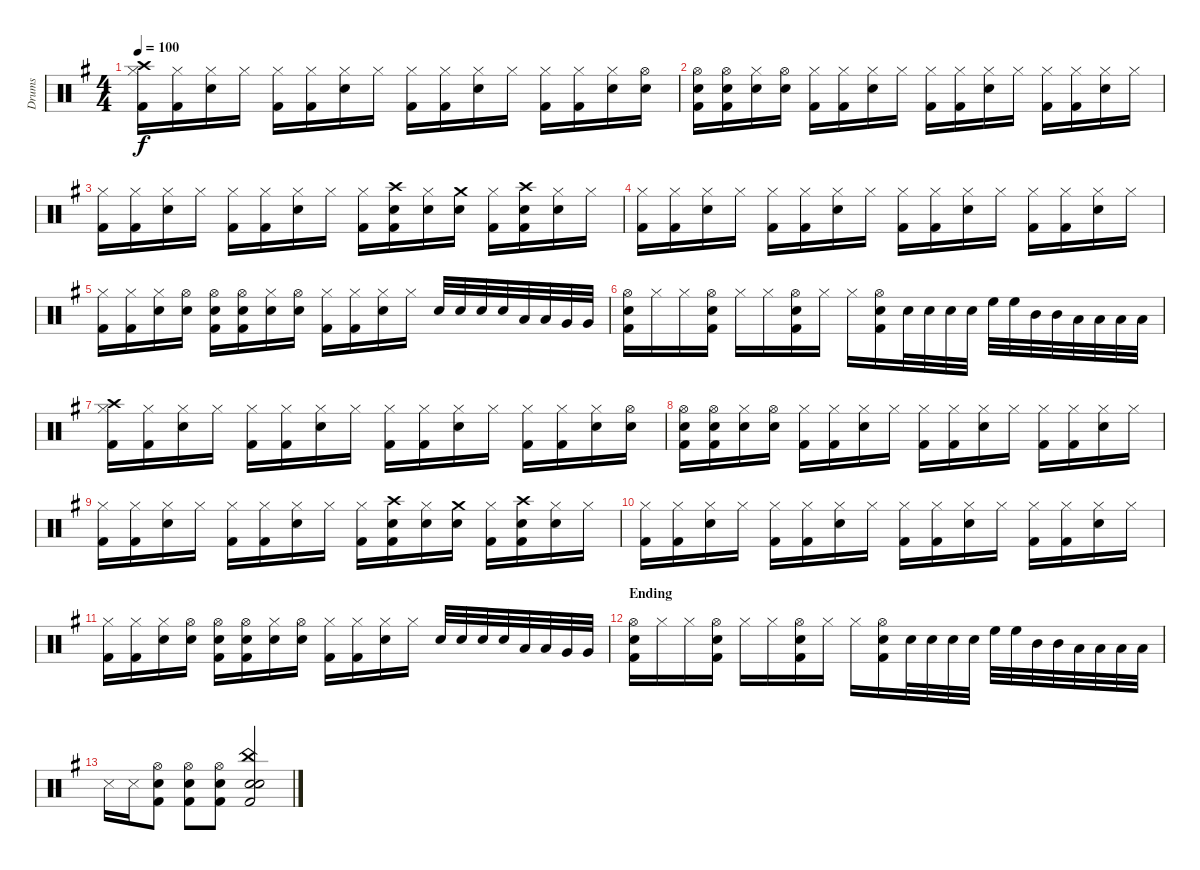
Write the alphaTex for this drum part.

\track ("Drums" "Drums") {instrument percussion}
\staff {score}
\articulation defaults
\ts (4 4)
\tempo 100
\clef neutral
\ks eminor
("Hi-Hat (closed)" "Crash high (hit)" "Kick (hit) 2").16{dy f} ("Hi-Hat (closed)" "Kick (hit) 2").16 ("Hi-Hat (closed)" "Snare (hit) 2").16 "Hi-Hat (closed)".16 ("Hi-Hat (closed)" "Kick (hit) 2").16 ("Hi-Hat (closed)" "Kick (hit) 2").16 ("Hi-Hat (closed)" "Snare (hit) 2").16 "Hi-Hat (closed)".16 ("Hi-Hat (closed)" "Kick (hit) 2").16 ("Hi-Hat (closed)" "Kick (hit) 2").16 ("Hi-Hat (closed)" "Snare (hit) 2").16 "Hi-Hat (closed)".16 ("Hi-Hat (closed)" "Kick (hit) 2").16 ("Hi-Hat (closed)" "Kick (hit) 2").16 ("Hi-Hat (closed)" "Snare (hit) 2").16 ("Hi-Hat (open)" "Snare (hit) 2").16 |
("Hi-Hat (open)" "Snare (hit) 2" "Kick (hit) 2").16 ("Hi-Hat (open)" "Snare (hit) 2" "Kick (hit) 2").16 ("Hi-Hat (closed)" "Snare (hit) 2").16 ("Hi-Hat (open)" "Snare (hit) 2").16 ("Hi-Hat (closed)" "Kick (hit) 2").16 ("Hi-Hat (closed)" "Kick (hit) 2").16 ("Hi-Hat (closed)" "Snare (hit) 2").16 "Hi-Hat (closed)".16 ("Hi-Hat (closed)" "Kick (hit) 2").16 ("Hi-Hat (closed)" "Kick (hit) 2").16 ("Hi-Hat (closed)" "Snare (hit) 2").16 "Hi-Hat (closed)".16 ("Hi-Hat (closed)" "Kick (hit) 2").16 ("Hi-Hat (closed)" "Kick (hit) 2").16 ("Hi-Hat (closed)" "Snare (hit) 2").16 "Hi-Hat (closed)".16 |
("Hi-Hat (closed)" "Kick (hit) 2").16 ("Hi-Hat (closed)" "Kick (hit) 2").16 ("Hi-Hat (closed)" "Snare (hit) 2").16 "Hi-Hat (closed)".16 ("Hi-Hat (closed)" "Kick (hit) 2").16 ("Hi-Hat (closed)" "Kick (hit) 2").16 ("Hi-Hat (closed)" "Snare (hit) 2").16 "Hi-Hat (closed)".16 ("Hi-Hat (closed)" "Kick (hit) 2").16 ("Crash high (hit)" "Snare (hit) 2" "Kick (hit) 2").16 ("Hi-Hat (closed)" "Snare (hit) 2").16 ("Crash medium (hit)" "Snare (hit) 2").16 ("Hi-Hat (closed)" "Kick (hit) 2").16 ("Crash high (hit)" "Snare (hit) 2" "Kick (hit) 2").16 ("Hi-Hat (closed)" "Snare (hit) 2").16 "Hi-Hat (closed)".16 |
("Hi-Hat (closed)" "Kick (hit) 2").16 ("Hi-Hat (closed)" "Kick (hit) 2").16 ("Hi-Hat (closed)" "Snare (hit) 2").16 "Hi-Hat (closed)".16 ("Hi-Hat (closed)" "Kick (hit) 2").16 ("Hi-Hat (closed)" "Kick (hit) 2").16 ("Hi-Hat (closed)" "Snare (hit) 2").16 "Hi-Hat (closed)".16 ("Hi-Hat (closed)" "Kick (hit) 2").16 ("Hi-Hat (closed)" "Kick (hit) 2").16 ("Hi-Hat (closed)" "Snare (hit) 2").16 "Hi-Hat (closed)".16 ("Hi-Hat (closed)" "Kick (hit) 2").16 ("Hi-Hat (closed)" "Kick (hit) 2").16 ("Hi-Hat (closed)" "Snare (hit) 2").16 "Hi-Hat (closed)".16 |
("Hi-Hat (closed)" "Kick (hit) 2").16 ("Hi-Hat (closed)" "Kick (hit) 2").16 ("Hi-Hat (closed)" "Snare (hit) 2").16 ("Hi-Hat (open)" "Snare (hit) 2").16 ("Hi-Hat (open)" "Snare (hit) 2" "Kick (hit) 2").16 ("Hi-Hat (open)" "Snare (hit) 2" "Kick (hit) 2").16 ("Hi-Hat (closed)" "Snare (hit) 2").16 ("Hi-Hat (open)" "Snare (hit) 2").16 ("Hi-Hat (closed)" "Kick (hit) 2").16 ("Hi-Hat (closed)" "Kick (hit) 2").16 ("Hi-Hat (closed)" "Snare (hit) 2").16 "Hi-Hat (closed)".16 "Snare (hit) 2".32 "Snare (hit) 2".32 "Snare (hit) 2".32 "Snare (hit) 2".32 "Low Floor Tom (hit)".32 "Low Floor Tom (hit)".32 "Very Low Tom (hit)".32 "Very Low Tom (hit)".32 |
("Hi-Hat (open)" "Snare (hit) 2" "Kick (hit) 2").16 "Hi-Hat (closed)".16 "Hi-Hat (closed)".16 ("Hi-Hat (open)" "Snare (hit) 2" "Kick (hit) 2").16 "Hi-Hat (closed)".16 "Hi-Hat (closed)".16 ("Hi-Hat (open)" "Snare (hit) 2" "Kick (hit) 2").16 "Hi-Hat (closed)".16 "Hi-Hat (closed)".16 ("Hi-Hat (open)" "Snare (hit) 2" "Kick (hit) 2").16 "Snare (hit) 2".32 "Snare (hit) 2".32 "Snare (hit) 2".32 "Snare (hit) 2".32 "High Floor Tom (hit)".32 "High Floor Tom (hit)".32 "Mid Tom (hit)".32 "Mid Tom (hit)".32 "Low Tom (hit)".32 "Low Tom (hit)".32 "Low Floor Tom (hit)".32 "Low Floor Tom (hit)".32 |
("Hi-Hat (closed)" "Crash high (hit)" "Kick (hit) 2").16 ("Hi-Hat (closed)" "Kick (hit) 2").16 ("Hi-Hat (closed)" "Snare (hit) 2").16 "Hi-Hat (closed)".16 ("Hi-Hat (closed)" "Kick (hit) 2").16 ("Hi-Hat (closed)" "Kick (hit) 2").16 ("Hi-Hat (closed)" "Snare (hit) 2").16 "Hi-Hat (closed)".16 ("Hi-Hat (closed)" "Kick (hit) 2").16 ("Hi-Hat (closed)" "Kick (hit) 2").16 ("Hi-Hat (closed)" "Snare (hit) 2").16 "Hi-Hat (closed)".16 ("Hi-Hat (closed)" "Kick (hit) 2").16 ("Hi-Hat (closed)" "Kick (hit) 2").16 ("Hi-Hat (closed)" "Snare (hit) 2").16 ("Hi-Hat (open)" "Snare (hit) 2").16 |
("Hi-Hat (open)" "Snare (hit) 2" "Kick (hit) 2").16 ("Hi-Hat (open)" "Snare (hit) 2" "Kick (hit) 2").16 ("Hi-Hat (closed)" "Snare (hit) 2").16 ("Hi-Hat (open)" "Snare (hit) 2").16 ("Hi-Hat (closed)" "Kick (hit) 2").16 ("Hi-Hat (closed)" "Kick (hit) 2").16 ("Hi-Hat (closed)" "Snare (hit) 2").16 "Hi-Hat (closed)".16 ("Hi-Hat (closed)" "Kick (hit) 2").16 ("Hi-Hat (closed)" "Kick (hit) 2").16 ("Hi-Hat (closed)" "Snare (hit) 2").16 "Hi-Hat (closed)".16 ("Hi-Hat (closed)" "Kick (hit) 2").16 ("Hi-Hat (closed)" "Kick (hit) 2").16 ("Hi-Hat (closed)" "Snare (hit) 2").16 "Hi-Hat (closed)".16 |
("Hi-Hat (closed)" "Kick (hit) 2").16 ("Hi-Hat (closed)" "Kick (hit) 2").16 ("Hi-Hat (closed)" "Snare (hit) 2").16 "Hi-Hat (closed)".16 ("Hi-Hat (closed)" "Kick (hit) 2").16 ("Hi-Hat (closed)" "Kick (hit) 2").16 ("Hi-Hat (closed)" "Snare (hit) 2").16 "Hi-Hat (closed)".16 ("Hi-Hat (closed)" "Kick (hit) 2").16 ("Crash high (hit)" "Snare (hit) 2" "Kick (hit) 2").16 ("Hi-Hat (closed)" "Snare (hit) 2").16 ("Crash medium (hit)" "Snare (hit) 2").16 ("Hi-Hat (closed)" "Kick (hit) 2").16 ("Crash high (hit)" "Snare (hit) 2" "Kick (hit) 2").16 ("Hi-Hat (closed)" "Snare (hit) 2").16 "Hi-Hat (closed)".16 |
("Hi-Hat (closed)" "Kick (hit) 2").16 ("Hi-Hat (closed)" "Kick (hit) 2").16 ("Hi-Hat (closed)" "Snare (hit) 2").16 "Hi-Hat (closed)".16 ("Hi-Hat (closed)" "Kick (hit) 2").16 ("Hi-Hat (closed)" "Kick (hit) 2").16 ("Hi-Hat (closed)" "Snare (hit) 2").16 "Hi-Hat (closed)".16 ("Hi-Hat (closed)" "Kick (hit) 2").16 ("Hi-Hat (closed)" "Kick (hit) 2").16 ("Hi-Hat (closed)" "Snare (hit) 2").16 "Hi-Hat (closed)".16 ("Hi-Hat (closed)" "Kick (hit) 2").16 ("Hi-Hat (closed)" "Kick (hit) 2").16 ("Hi-Hat (closed)" "Snare (hit) 2").16 "Hi-Hat (closed)".16 |
("Hi-Hat (closed)" "Kick (hit) 2").16 ("Hi-Hat (closed)" "Kick (hit) 2").16 ("Hi-Hat (closed)" "Snare (hit) 2").16 ("Hi-Hat (open)" "Snare (hit) 2").16 ("Hi-Hat (open)" "Snare (hit) 2" "Kick (hit) 2").16 ("Hi-Hat (open)" "Snare (hit) 2" "Kick (hit) 2").16 ("Hi-Hat (closed)" "Snare (hit) 2").16 ("Hi-Hat (open)" "Snare (hit) 2").16 ("Hi-Hat (closed)" "Kick (hit) 2").16 ("Hi-Hat (closed)" "Kick (hit) 2").16 ("Hi-Hat (closed)" "Snare (hit) 2").16 "Hi-Hat (closed)".16 "Snare (hit) 2".32 "Snare (hit) 2".32 "Snare (hit) 2".32 "Snare (hit) 2".32 "Low Floor Tom (hit)".32 "Low Floor Tom (hit)".32 "Very Low Tom (hit)".32 "Very Low Tom (hit)".32 |
\section ("" "Ending")
("Hi-Hat (open)" "Snare (hit) 2" "Kick (hit) 2").16 "Hi-Hat (closed)".16 "Hi-Hat (closed)".16 ("Hi-Hat (open)" "Snare (hit) 2" "Kick (hit) 2").16 "Hi-Hat (closed)".16 "Hi-Hat (closed)".16 ("Hi-Hat (open)" "Snare (hit) 2" "Kick (hit) 2").16 "Hi-Hat (closed)".16 "Hi-Hat (closed)".16 ("Hi-Hat (open)" "Snare (hit) 2" "Kick (hit) 2").16 "Snare (hit) 2".32 "Snare (hit) 2".32 "Snare (hit) 2".32 "Snare (hit) 2".32 "High Floor Tom (hit)".32 "High Floor Tom (hit)".32 "Mid Tom (hit)".32 "Mid Tom (hit)".32 "Low Tom (hit)".32 "Low Tom (hit)".32 "Low Floor Tom (hit)".32 "Low Floor Tom (hit)".32 |
"Snare (side stick) 3".16 "Snare (side stick) 3".16 ("Hi-Hat (open)" "Snare (hit) 2" "Kick (hit) 2").8 ("Hi-Hat (open)" "Snare (hit) 2" "Kick (hit) 2").8 ("Hi-Hat (open)" "Snare (hit) 2" "Kick (hit) 2").8 ("China (hit)" "Hand Clap (hit)" "Snare (hit) 2" "Kick (hit) 2").2
